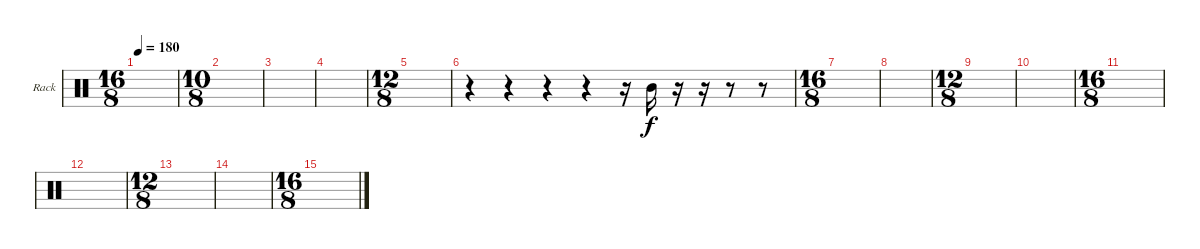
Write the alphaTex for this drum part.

\defaultSystemsLayout 4
\bracketExtendMode groupsimilarinstruments
\firstSystemTrackNameOrientation horizontal
\otherSystemsTrackNameOrientation horizontal
\track ("Rack Toms" "Rack") {instrument percussion}
\staff {score}
\articulation defaults
\ts (16 8)
\tempo 180
\clef neutral
\ks c
|
\ts (10 8)
|
|
|
\ts (12 8)
|
r.4 r.4 r.4 r.4 r.16 "Mid Tom (hit)".16 r.16 r.16 r.8 r.8 |
\ts (16 8)
|
|
\ts (12 8)
|
|
\ts (16 8)
|
|
\ts (12 8)
|
|
\ts (16 8)
